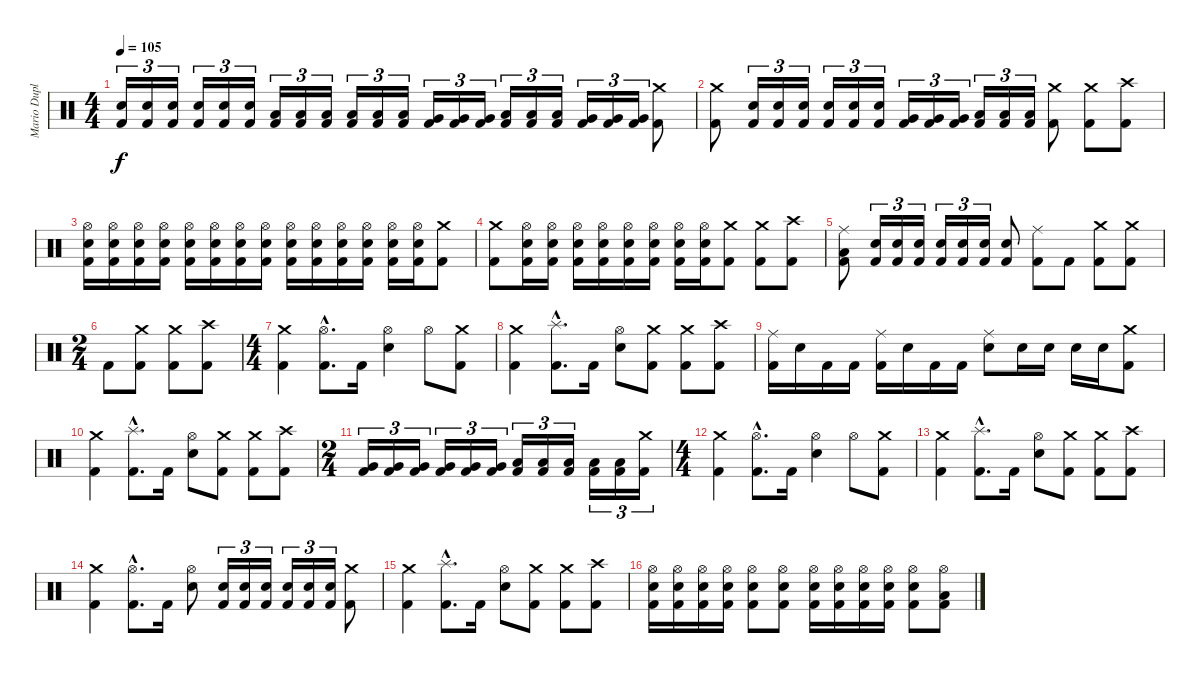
\track ("Mario Duplantier" "Mario Dupl") {instrument percussion}
\staff {score}
\articulation defaults
\ts (4 4)
\tempo 105
\clef neutral
\ks c
("Electric Snare (hit)" "Kick (hit) 2").16{tu (3 2) dy f} ("Electric Snare (hit)" "Kick (hit) 2").16{tu (3 2)} ("Electric Snare (hit)" "Kick (hit) 2").16{tu (3 2)} ("Electric Snare (hit)" "Kick (hit) 2").16{tu (3 2)} ("Electric Snare (hit)" "Kick (hit) 2").16{tu (3 2)} ("Electric Snare (hit)" "Kick (hit) 2").16{tu (3 2)} ("Low Tom (hit)" "Kick (hit) 2").16{tu (3 2)} ("Low Tom (hit)" "Kick (hit) 2").16{tu (3 2)} ("Low Tom (hit)" "Kick (hit) 2").16{tu (3 2)} ("Low Tom (hit)" "Kick (hit) 2").16{tu (3 2)} ("Low Tom (hit)" "Kick (hit) 2").16{tu (3 2)} ("Low Tom (hit)" "Kick (hit) 2").16{tu (3 2)} ("Very Low Tom (hit)" "Kick (hit) 2").16{tu (3 2)} ("Very Low Tom (hit)" "Kick (hit) 2").16{tu (3 2)} ("Very Low Tom (hit)" "Kick (hit) 2").16{tu (3 2)} ("Low Floor Tom (hit)" "Kick (hit) 2").16{tu (3 2)} ("Low Floor Tom (hit)" "Kick (hit) 2").16{tu (3 2)} ("Low Floor Tom (hit)" "Kick (hit) 2").16{tu (3 2)} ("Very Low Tom (hit)" "Kick (hit) 2").16{tu (3 2)} ("Very Low Tom (hit)" "Kick (hit) 2").16{tu (3 2)} ("Very Low Tom (hit)" "Kick (hit) 2").16{tu (3 2)} ("Crash medium (hit)" "Kick (hit) 2").8 |
("Crash medium (hit)" "Kick (hit) 2").8 ("Electric Snare (hit)" "Kick (hit) 2").16{tu (3 2)} ("Electric Snare (hit)" "Kick (hit) 2").16{tu (3 2)} ("Electric Snare (hit)" "Kick (hit) 2").16{tu (3 2)} ("Electric Snare (hit)" "Kick (hit) 2").16{tu (3 2)} ("Electric Snare (hit)" "Kick (hit) 2").16{tu (3 2)} ("Electric Snare (hit)" "Kick (hit) 2").16{tu (3 2)} ("Very Low Tom (hit)" "Kick (hit) 2").16{tu (3 2)} ("Very Low Tom (hit)" "Kick (hit) 2").16{tu (3 2)} ("Very Low Tom (hit)" "Kick (hit) 2").16{tu (3 2)} ("Low Floor Tom (hit)" "Kick (hit) 2").16{tu (3 2)} ("Low Floor Tom (hit)" "Kick (hit) 2").16{tu (3 2)} ("Low Floor Tom (hit)" "Kick (hit) 2").16{tu (3 2)} ("Crash medium (hit)" "Kick (hit) 2").8 ("Crash medium (hit)" "Kick (hit) 2").8 ("Crash high (hit)" "Kick (hit) 2").8 |
("Hi-Hat (open)" "Electric Snare (hit)" "Kick (hit) 2").16 ("Hi-Hat (open)" "Electric Snare (hit)" "Kick (hit) 2").16 ("Hi-Hat (open)" "Electric Snare (hit)" "Kick (hit) 2").16 ("Hi-Hat (open)" "Electric Snare (hit)" "Kick (hit) 2").16 ("Hi-Hat (open)" "Electric Snare (hit)" "Kick (hit) 2").16 ("Hi-Hat (open)" "Electric Snare (hit)" "Kick (hit) 2").16 ("Hi-Hat (open)" "Electric Snare (hit)" "Kick (hit) 2").16 ("Hi-Hat (open)" "Electric Snare (hit)" "Kick (hit) 2").16 ("Hi-Hat (open)" "Electric Snare (hit)" "Kick (hit) 2").16 ("Hi-Hat (open)" "Electric Snare (hit)" "Kick (hit) 2").16 ("Hi-Hat (open)" "Electric Snare (hit)" "Kick (hit) 2").16 ("Hi-Hat (open)" "Electric Snare (hit)" "Kick (hit) 2").16 ("Hi-Hat (open)" "Electric Snare (hit)" "Kick (hit) 2").16 ("Hi-Hat (open)" "Electric Snare (hit)" "Kick (hit) 2").16 ("Crash medium (hit)" "Kick (hit) 2").8 |
("Crash medium (hit)" "Kick (hit) 2").8 ("Hi-Hat (open)" "Electric Snare (hit)" "Kick (hit) 2").16 ("Hi-Hat (open)" "Electric Snare (hit)" "Kick (hit) 2").16 ("Hi-Hat (open)" "Electric Snare (hit)" "Kick (hit) 2").16 ("Hi-Hat (open)" "Electric Snare (hit)" "Kick (hit) 2").16 ("Hi-Hat (open)" "Electric Snare (hit)" "Kick (hit) 2").16 ("Hi-Hat (open)" "Electric Snare (hit)" "Kick (hit) 2").16 ("Hi-Hat (open)" "Electric Snare (hit)" "Kick (hit) 2").16 ("Hi-Hat (open)" "Electric Snare (hit)" "Kick (hit) 2").16 ("Crash medium (hit)" "Kick (hit) 2").8 ("Crash medium (hit)" "Kick (hit) 2").8 ("Crash high (hit)" "Kick (hit) 2").8 |
("Ride (middle)" "Low Floor Tom (hit)" "Kick (hit) 2").8 ("Electric Snare (hit)" "Kick (hit) 2").16{tu (3 2)} ("Electric Snare (hit)" "Kick (hit) 2").16{tu (3 2)} ("Electric Snare (hit)" "Kick (hit) 2").16{tu (3 2)} ("Electric Snare (hit)" "Kick (hit) 2").16{tu (3 2)} ("Electric Snare (hit)" "Kick (hit) 2").16{tu (3 2)} ("Electric Snare (hit)" "Kick (hit) 2").16{tu (3 2)} ("Electric Snare (hit)" "Kick (hit) 2").8 ("Ride (middle)" "Kick (hit) 2").8 "Kick (hit) 2".8 ("Crash medium (hit)" "Kick (hit) 2").8 ("Crash medium (hit)" "Kick (hit) 2").8 |
\ts (2 4)
"Kick (hit) 2".8 ("Crash medium (hit)" "Kick (hit) 2").8 ("Crash medium (hit)" "Kick (hit) 2").8 ("Crash high (hit)" "Kick (hit) 2").8 |
\ts (4 4)
("Crash medium (hit)" "Kick (hit) 2").4 ("Hi-Hat (open)"{hac} "Kick (hit) 2"{hac}).8{d} "Kick (hit) 2".16 ("Hi-Hat (open)" "Electric Snare (hit)").4 "Hi-Hat (open)".8 ("Crash medium (hit)" "Kick (hit) 2").8 |
("Crash medium (hit)" "Kick (hit) 2").4 ("Splash (hit)"{hac} "Kick (hit) 2"{hac}).8{d} "Kick (hit) 2".16 ("Hi-Hat (open)" "Electric Snare (hit)").8 ("Crash medium (hit)" "Kick (hit) 2").8 ("Crash medium (hit)" "Kick (hit) 2").8 ("Crash high (hit)" "Kick (hit) 2").8 |
("Ride (middle)" "Kick (hit) 2").16 "Electric Snare (hit)".16 "Kick (hit) 2".16 "Kick (hit) 2".16 ("Ride (middle)" "Kick (hit) 2").16 "Electric Snare (hit)".16 "Kick (hit) 2".16 "Kick (hit) 2".16 ("Ride (middle)" "Electric Snare (hit)").8 "Electric Snare (hit)".16 "Electric Snare (hit)".16 "Electric Snare (hit)".16 "Electric Snare (hit)".16 ("Crash medium (hit)" "Kick (hit) 2").8 |
("Crash medium (hit)" "Kick (hit) 2").4 ("Splash (hit)"{hac} "Kick (hit) 2"{hac}).8{d} "Kick (hit) 2".16 ("Hi-Hat (open)" "Electric Snare (hit)").8 ("Crash medium (hit)" "Kick (hit) 2").8 ("Crash medium (hit)" "Kick (hit) 2").8 ("Crash high (hit)" "Kick (hit) 2").8 |
\ts (2 4)
("Very Low Tom (hit)" "Kick (hit) 2").16{tu (3 2)} ("Very Low Tom (hit)" "Kick (hit) 2").16{tu (3 2)} ("Very Low Tom (hit)" "Kick (hit) 2").16{tu (3 2)} ("Very Low Tom (hit)" "Kick (hit) 2").16{tu (3 2)} ("Very Low Tom (hit)" "Kick (hit) 2").16{tu (3 2)} ("Very Low Tom (hit)" "Kick (hit) 2").16{tu (3 2)} ("Low Floor Tom (hit)" "Kick (hit) 2").16{tu (3 2)} ("Low Floor Tom (hit)" "Kick (hit) 2").16{tu (3 2)} ("Low Floor Tom (hit)" "Kick (hit) 2").16{tu (3 2)} ("Low Floor Tom (hit)" "Kick (hit) 2").16{tu (3 2)} ("Low Floor Tom (hit)" "Kick (hit) 2").16{tu (3 2)} ("Crash medium (hit)" "Kick (hit) 2").16{tu (3 2)} |
\ts (4 4)
("Crash medium (hit)" "Kick (hit) 2").4 ("Hi-Hat (open)"{hac} "Kick (hit) 2"{hac}).8{d} "Kick (hit) 2".16 ("Hi-Hat (open)" "Electric Snare (hit)").4 "Hi-Hat (open)".8 ("Crash medium (hit)" "Kick (hit) 2").8 |
("Crash medium (hit)" "Kick (hit) 2").4 ("Splash (hit)"{hac} "Kick (hit) 2"{hac}).8{d} "Kick (hit) 2".16 ("Hi-Hat (open)" "Electric Snare (hit)").8 ("Crash medium (hit)" "Kick (hit) 2").8 ("Crash medium (hit)" "Kick (hit) 2").8 ("Crash high (hit)" "Kick (hit) 2").8 |
("Crash medium (hit)" "Kick (hit) 2").4 ("Hi-Hat (open)"{hac} "Kick (hit) 2"{hac}).8{d} "Kick (hit) 2".16 ("Hi-Hat (open)" "Electric Snare (hit)").8 ("Electric Snare (hit)" "Kick (hit) 2").16{tu (3 2)} ("Electric Snare (hit)" "Kick (hit) 2").16{tu (3 2)} ("Electric Snare (hit)" "Kick (hit) 2").16{tu (3 2)} ("Electric Snare (hit)" "Kick (hit) 2").16{tu (3 2)} ("Electric Snare (hit)" "Kick (hit) 2").16{tu (3 2)} ("Electric Snare (hit)" "Kick (hit) 2").16{tu (3 2)} ("Crash medium (hit)" "Kick (hit) 2").8 |
("Crash medium (hit)" "Kick (hit) 2").4 ("Splash (hit)"{hac} "Kick (hit) 2"{hac}).8{d} "Kick (hit) 2".16 ("Hi-Hat (open)" "Electric Snare (hit)").8 ("Crash medium (hit)" "Kick (hit) 2").8 ("Crash medium (hit)" "Kick (hit) 2").8 ("Crash high (hit)" "Kick (hit) 2").8 |
("Hi-Hat (open)" "Electric Snare (hit)" "Kick (hit) 2").16 ("Hi-Hat (open)" "Electric Snare (hit)" "Kick (hit) 2").16 ("Hi-Hat (open)" "Electric Snare (hit)" "Kick (hit) 2").16 ("Hi-Hat (open)" "Electric Snare (hit)" "Kick (hit) 2").16 ("Hi-Hat (open)" "Electric Snare (hit)" "Kick (hit) 2").8 ("Hi-Hat (open)" "Electric Snare (hit)" "Kick (hit) 2").8 ("Hi-Hat (open)" "Electric Snare (hit)" "Kick (hit) 2").16 ("Hi-Hat (open)" "Electric Snare (hit)" "Kick (hit) 2").16 ("Hi-Hat (open)" "Electric Snare (hit)" "Kick (hit) 2").16 ("Hi-Hat (open)" "Electric Snare (hit)" "Kick (hit) 2").16 ("Hi-Hat (open)" "Electric Snare (hit)" "Kick (hit) 2").8 ("Hi-Hat (open)" "Low Floor Tom (hit)" "Kick (hit) 2").8
